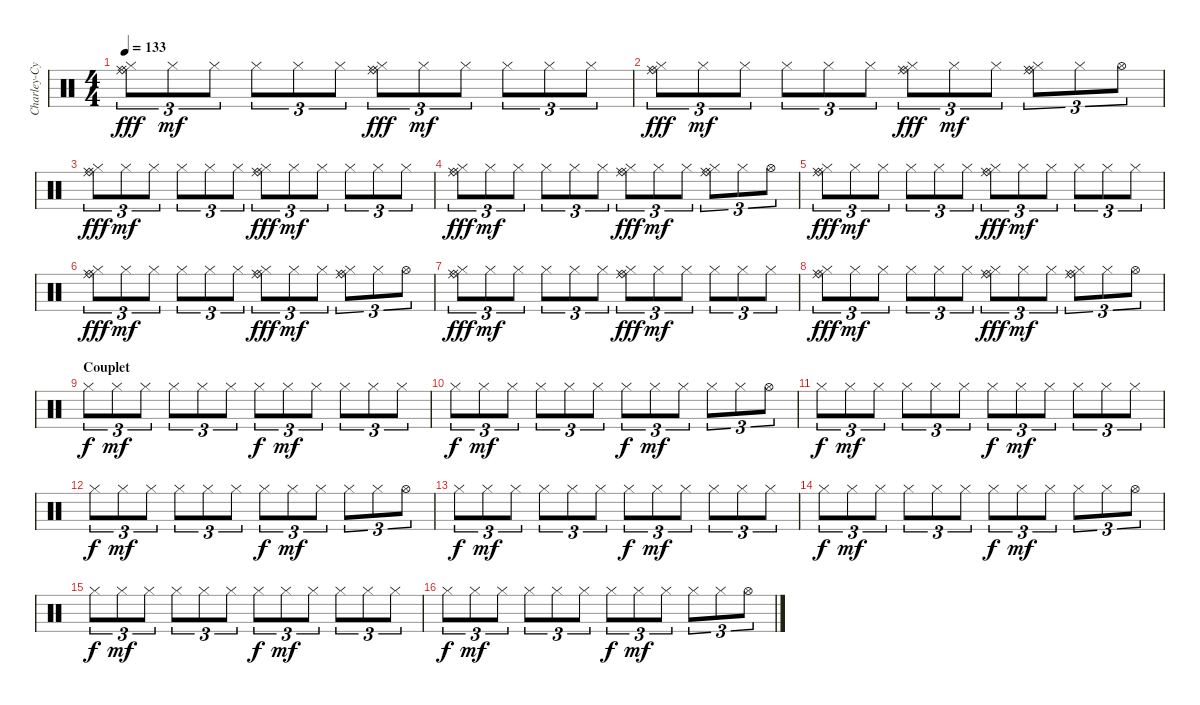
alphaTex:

\track ("Charley-Cymbales" "Charley-Cy") {instrument percussion}
\staff {score}
\articulation defaults
\ts (4 4)
\tempo 133
\clef neutral
\ks c
("Ride (bell)" "Ride (middle)" "Hi-Hat (closed)").8{tu (3 2) dy fff} "Hi-Hat (closed)".8{tu (3 2) dy mf} "Hi-Hat (closed)".8{tu (3 2)} "Hi-Hat (closed)".8{tu (3 2)} "Hi-Hat (closed)".8{tu (3 2)} "Hi-Hat (closed)".8{tu (3 2)} ("Ride (bell)" "Ride (middle)" "Hi-Hat (closed)").8{tu (3 2) dy fff} "Hi-Hat (closed)".8{tu (3 2) dy mf} "Hi-Hat (closed)".8{tu (3 2)} "Hi-Hat (closed)".8{tu (3 2)} "Hi-Hat (closed)".8{tu (3 2)} "Hi-Hat (closed)".8{tu (3 2)} |
("Ride (bell)" "Ride (middle)" "Hi-Hat (closed)").8{tu (3 2) dy fff} "Hi-Hat (closed)".8{tu (3 2) dy mf} "Hi-Hat (closed)".8{tu (3 2)} "Hi-Hat (closed)".8{tu (3 2)} "Hi-Hat (closed)".8{tu (3 2)} "Hi-Hat (closed)".8{tu (3 2)} ("Ride (bell)" "Ride (middle)" "Hi-Hat (closed)").8{tu (3 2) dy fff} "Hi-Hat (closed)".8{tu (3 2) dy mf} "Hi-Hat (closed)".8{tu (3 2)} ("Ride (bell)" "Ride (middle)" "Hi-Hat (closed)").8{tu (3 2)} "Hi-Hat (closed)".8{tu (3 2)} "Hi-Hat (open)".8{tu (3 2)} |
("Ride (bell)" "Ride (middle)" "Hi-Hat (closed)").8{tu (3 2) dy fff} "Hi-Hat (closed)".8{tu (3 2) dy mf} "Hi-Hat (closed)".8{tu (3 2)} "Hi-Hat (closed)".8{tu (3 2)} "Hi-Hat (closed)".8{tu (3 2)} "Hi-Hat (closed)".8{tu (3 2)} ("Ride (bell)" "Ride (middle)" "Hi-Hat (closed)").8{tu (3 2) dy fff} "Hi-Hat (closed)".8{tu (3 2) dy mf} "Hi-Hat (closed)".8{tu (3 2)} "Hi-Hat (closed)".8{tu (3 2)} "Hi-Hat (closed)".8{tu (3 2)} "Hi-Hat (closed)".8{tu (3 2)} |
("Ride (bell)" "Ride (middle)" "Hi-Hat (closed)").8{tu (3 2) dy fff} "Hi-Hat (closed)".8{tu (3 2) dy mf} "Hi-Hat (closed)".8{tu (3 2)} "Hi-Hat (closed)".8{tu (3 2)} "Hi-Hat (closed)".8{tu (3 2)} "Hi-Hat (closed)".8{tu (3 2)} ("Ride (bell)" "Ride (middle)" "Hi-Hat (closed)").8{tu (3 2) dy fff} "Hi-Hat (closed)".8{tu (3 2) dy mf} "Hi-Hat (closed)".8{tu (3 2)} ("Ride (bell)" "Ride (middle)" "Hi-Hat (closed)").8{tu (3 2)} "Hi-Hat (closed)".8{tu (3 2)} "Hi-Hat (open)".8{tu (3 2)} |
("Ride (bell)" "Ride (middle)" "Hi-Hat (closed)").8{tu (3 2) dy fff} "Hi-Hat (closed)".8{tu (3 2) dy mf} "Hi-Hat (closed)".8{tu (3 2)} "Hi-Hat (closed)".8{tu (3 2)} "Hi-Hat (closed)".8{tu (3 2)} "Hi-Hat (closed)".8{tu (3 2)} ("Ride (bell)" "Ride (middle)" "Hi-Hat (closed)").8{tu (3 2) dy fff} "Hi-Hat (closed)".8{tu (3 2) dy mf} "Hi-Hat (closed)".8{tu (3 2)} "Hi-Hat (closed)".8{tu (3 2)} "Hi-Hat (closed)".8{tu (3 2)} "Hi-Hat (closed)".8{tu (3 2)} |
("Ride (bell)" "Ride (middle)" "Hi-Hat (closed)").8{tu (3 2) dy fff} "Hi-Hat (closed)".8{tu (3 2) dy mf} "Hi-Hat (closed)".8{tu (3 2)} "Hi-Hat (closed)".8{tu (3 2)} "Hi-Hat (closed)".8{tu (3 2)} "Hi-Hat (closed)".8{tu (3 2)} ("Ride (bell)" "Ride (middle)" "Hi-Hat (closed)").8{tu (3 2) dy fff} "Hi-Hat (closed)".8{tu (3 2) dy mf} "Hi-Hat (closed)".8{tu (3 2)} ("Ride (bell)" "Ride (middle)" "Hi-Hat (closed)").8{tu (3 2)} "Hi-Hat (closed)".8{tu (3 2)} "Hi-Hat (open)".8{tu (3 2)} |
("Ride (bell)" "Ride (middle)" "Hi-Hat (closed)").8{tu (3 2) dy fff} "Hi-Hat (closed)".8{tu (3 2) dy mf} "Hi-Hat (closed)".8{tu (3 2)} "Hi-Hat (closed)".8{tu (3 2)} "Hi-Hat (closed)".8{tu (3 2)} "Hi-Hat (closed)".8{tu (3 2)} ("Ride (bell)" "Ride (middle)" "Hi-Hat (closed)").8{tu (3 2) dy fff} "Hi-Hat (closed)".8{tu (3 2) dy mf} "Hi-Hat (closed)".8{tu (3 2)} "Hi-Hat (closed)".8{tu (3 2)} "Hi-Hat (closed)".8{tu (3 2)} "Hi-Hat (closed)".8{tu (3 2)} |
("Ride (bell)" "Ride (middle)" "Hi-Hat (closed)").8{tu (3 2) dy fff} "Hi-Hat (closed)".8{tu (3 2) dy mf} "Hi-Hat (closed)".8{tu (3 2)} "Hi-Hat (closed)".8{tu (3 2)} "Hi-Hat (closed)".8{tu (3 2)} "Hi-Hat (closed)".8{tu (3 2)} ("Ride (bell)" "Ride (middle)" "Hi-Hat (closed)").8{tu (3 2) dy fff} "Hi-Hat (closed)".8{tu (3 2) dy mf} "Hi-Hat (closed)".8{tu (3 2)} ("Ride (bell)" "Ride (middle)" "Hi-Hat (closed)").8{tu (3 2)} "Hi-Hat (closed)".8{tu (3 2)} "Hi-Hat (open)".8{tu (3 2)} |
\section ("" "Couplet")
"Hi-Hat (closed)".8{tu (3 2) dy f} "Hi-Hat (closed)".8{tu (3 2) dy mf} "Hi-Hat (closed)".8{tu (3 2)} "Hi-Hat (closed)".8{tu (3 2)} "Hi-Hat (closed)".8{tu (3 2)} "Hi-Hat (closed)".8{tu (3 2)} "Hi-Hat (closed)".8{tu (3 2) dy f} "Hi-Hat (closed)".8{tu (3 2) dy mf} "Hi-Hat (closed)".8{tu (3 2)} "Hi-Hat (closed)".8{tu (3 2)} "Hi-Hat (closed)".8{tu (3 2)} "Hi-Hat (closed)".8{tu (3 2)} |
"Hi-Hat (closed)".8{tu (3 2) dy f} "Hi-Hat (closed)".8{tu (3 2) dy mf} "Hi-Hat (closed)".8{tu (3 2)} "Hi-Hat (closed)".8{tu (3 2)} "Hi-Hat (closed)".8{tu (3 2)} "Hi-Hat (closed)".8{tu (3 2)} "Hi-Hat (closed)".8{tu (3 2) dy f} "Hi-Hat (closed)".8{tu (3 2) dy mf} "Hi-Hat (closed)".8{tu (3 2)} "Hi-Hat (closed)".8{tu (3 2)} "Hi-Hat (closed)".8{tu (3 2)} "Hi-Hat (open)".8{tu (3 2)} |
"Hi-Hat (closed)".8{tu (3 2) dy f} "Hi-Hat (closed)".8{tu (3 2) dy mf} "Hi-Hat (closed)".8{tu (3 2)} "Hi-Hat (closed)".8{tu (3 2)} "Hi-Hat (closed)".8{tu (3 2)} "Hi-Hat (closed)".8{tu (3 2)} "Hi-Hat (closed)".8{tu (3 2) dy f} "Hi-Hat (closed)".8{tu (3 2) dy mf} "Hi-Hat (closed)".8{tu (3 2)} "Hi-Hat (closed)".8{tu (3 2)} "Hi-Hat (closed)".8{tu (3 2)} "Hi-Hat (closed)".8{tu (3 2)} |
"Hi-Hat (closed)".8{tu (3 2) dy f} "Hi-Hat (closed)".8{tu (3 2) dy mf} "Hi-Hat (closed)".8{tu (3 2)} "Hi-Hat (closed)".8{tu (3 2)} "Hi-Hat (closed)".8{tu (3 2)} "Hi-Hat (closed)".8{tu (3 2)} "Hi-Hat (closed)".8{tu (3 2) dy f} "Hi-Hat (closed)".8{tu (3 2) dy mf} "Hi-Hat (closed)".8{tu (3 2)} "Hi-Hat (closed)".8{tu (3 2)} "Hi-Hat (closed)".8{tu (3 2)} "Hi-Hat (open)".8{tu (3 2)} |
"Hi-Hat (closed)".8{tu (3 2) dy f} "Hi-Hat (closed)".8{tu (3 2) dy mf} "Hi-Hat (closed)".8{tu (3 2)} "Hi-Hat (closed)".8{tu (3 2)} "Hi-Hat (closed)".8{tu (3 2)} "Hi-Hat (closed)".8{tu (3 2)} "Hi-Hat (closed)".8{tu (3 2) dy f} "Hi-Hat (closed)".8{tu (3 2) dy mf} "Hi-Hat (closed)".8{tu (3 2)} "Hi-Hat (closed)".8{tu (3 2)} "Hi-Hat (closed)".8{tu (3 2)} "Hi-Hat (closed)".8{tu (3 2)} |
"Hi-Hat (closed)".8{tu (3 2) dy f} "Hi-Hat (closed)".8{tu (3 2) dy mf} "Hi-Hat (closed)".8{tu (3 2)} "Hi-Hat (closed)".8{tu (3 2)} "Hi-Hat (closed)".8{tu (3 2)} "Hi-Hat (closed)".8{tu (3 2)} "Hi-Hat (closed)".8{tu (3 2) dy f} "Hi-Hat (closed)".8{tu (3 2) dy mf} "Hi-Hat (closed)".8{tu (3 2)} "Hi-Hat (closed)".8{tu (3 2)} "Hi-Hat (closed)".8{tu (3 2)} "Hi-Hat (open)".8{tu (3 2)} |
"Hi-Hat (closed)".8{tu (3 2) dy f} "Hi-Hat (closed)".8{tu (3 2) dy mf} "Hi-Hat (closed)".8{tu (3 2)} "Hi-Hat (closed)".8{tu (3 2)} "Hi-Hat (closed)".8{tu (3 2)} "Hi-Hat (closed)".8{tu (3 2)} "Hi-Hat (closed)".8{tu (3 2) dy f} "Hi-Hat (closed)".8{tu (3 2) dy mf} "Hi-Hat (closed)".8{tu (3 2)} "Hi-Hat (closed)".8{tu (3 2)} "Hi-Hat (closed)".8{tu (3 2)} "Hi-Hat (closed)".8{tu (3 2)} |
"Hi-Hat (closed)".8{tu (3 2) dy f} "Hi-Hat (closed)".8{tu (3 2) dy mf} "Hi-Hat (closed)".8{tu (3 2)} "Hi-Hat (closed)".8{tu (3 2)} "Hi-Hat (closed)".8{tu (3 2)} "Hi-Hat (closed)".8{tu (3 2)} "Hi-Hat (closed)".8{tu (3 2) dy f} "Hi-Hat (closed)".8{tu (3 2) dy mf} "Hi-Hat (closed)".8{tu (3 2)} "Hi-Hat (closed)".8{tu (3 2)} "Hi-Hat (closed)".8{tu (3 2)} "Hi-Hat (open)".8{tu (3 2)}
